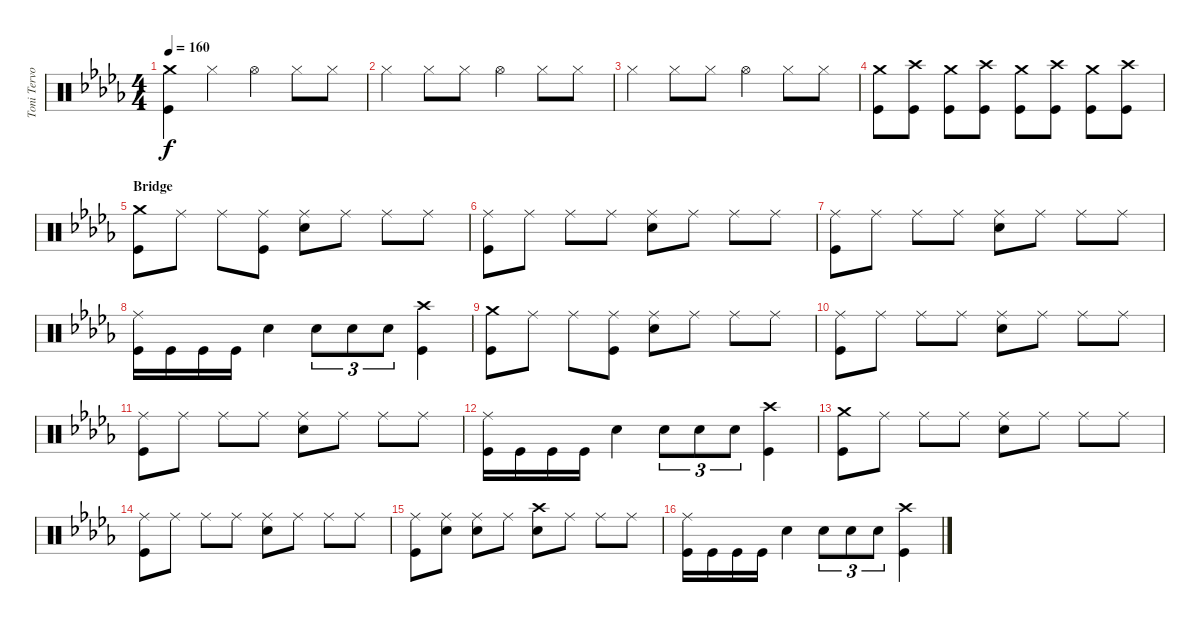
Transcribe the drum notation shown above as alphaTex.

\track ("Toni Tervo (drums)" "Toni Tervo") {instrument percussion}
\staff {score}
\articulation defaults
\ts (4 4)
\tempo 160
\clef neutral
\ks bbminor
("Crash medium (hit)" "Kick (hit)").4{dy f} "Hi-Hat (closed)".4 "Hi-Hat (open)".4 "Hi-Hat (closed)".8 "Hi-Hat (closed)".8 |
"Hi-Hat (closed)".4 "Hi-Hat (closed)".8 "Hi-Hat (closed)".8 "Hi-Hat (open)".4 "Hi-Hat (closed)".8 "Hi-Hat (closed)".8 |
"Hi-Hat (closed)".4 "Hi-Hat (closed)".8 "Hi-Hat (closed)".8 "Hi-Hat (open)".4 "Hi-Hat (closed)".8 "Hi-Hat (closed)".8 |
("Kick (hit)" "Crash medium (hit)").8 ("Kick (hit)" "Crash high (hit)").8 ("Kick (hit)" "Crash medium (hit)").8 ("Kick (hit)" "Crash high (hit)").8 ("Kick (hit)" "Crash medium (hit)").8 ("Kick (hit)" "Crash high (hit)").8 ("Kick (hit)" "Crash medium (hit)").8 ("Kick (hit)" "Crash high (hit)").8 |
\section ("" "Bridge")
("Crash medium (hit)" "Kick (hit)").8 "Ride (middle)".8 "Ride (middle)".8 ("Ride (middle)" "Kick (hit)").8 ("Ride (middle)" "Snare (hit) 2").8 "Ride (middle)".8 "Ride (middle)".8 "Ride (middle)".8 |
("Kick (hit)" "Ride (middle)").8 "Ride (middle)".8 "Ride (middle)".8 "Ride (middle)".8 ("Ride (middle)" "Snare (hit) 2").8 "Ride (middle)".8 "Ride (middle)".8 "Ride (middle)".8 |
("Kick (hit)" "Ride (middle)").8 "Ride (middle)".8 "Ride (middle)".8 "Ride (middle)".8 ("Ride (middle)" "Snare (hit) 2").8 "Ride (middle)".8 "Ride (middle)".8 "Ride (middle)".8 |
("Kick (hit)" "Ride (middle)").16 "Kick (hit)".16 "Kick (hit)".16 "Kick (hit)".16 "Snare (hit) 2".4 "Snare (hit) 2".8{tu (3 2)} "Snare (hit) 2".8{tu (3 2)} "Snare (hit) 2".8{tu (3 2)} ("Kick (hit)" "Crash high (hit)").4 |
("Crash medium (hit)" "Kick (hit)").8 "Ride (middle)".8 "Ride (middle)".8 ("Ride (middle)" "Kick (hit)").8 ("Ride (middle)" "Snare (hit) 2").8 "Ride (middle)".8 "Ride (middle)".8 "Ride (middle)".8 |
("Kick (hit)" "Ride (middle)").8 "Ride (middle)".8 "Ride (middle)".8 "Ride (middle)".8 ("Ride (middle)" "Snare (hit) 2").8 "Ride (middle)".8 "Ride (middle)".8 "Ride (middle)".8 |
("Kick (hit)" "Ride (middle)").8 "Ride (middle)".8 "Ride (middle)".8 "Ride (middle)".8 ("Ride (middle)" "Snare (hit) 2").8 "Ride (middle)".8 "Ride (middle)".8 "Ride (middle)".8 |
("Kick (hit)" "Ride (middle)").16 "Kick (hit)".16 "Kick (hit)".16 "Kick (hit)".16 "Snare (hit) 2".4 "Snare (hit) 2".8{tu (3 2)} "Snare (hit) 2".8{tu (3 2)} "Snare (hit) 2".8{tu (3 2)} ("Kick (hit)" "Crash high (hit)").4 |
("Crash medium (hit)" "Kick (hit)").8 "Ride (middle)".8 "Ride (middle)".8 "Ride (middle)".8 ("Ride (middle)" "Snare (hit) 2").8 "Ride (middle)".8 "Ride (middle)".8 "Ride (middle)".8 |
("Kick (hit)" "Ride (middle)").8 "Ride (middle)".8 "Ride (middle)".8 "Ride (middle)".8 ("Ride (middle)" "Snare (hit) 2").8 "Ride (middle)".8 "Ride (middle)".8 "Ride (middle)".8 |
("Kick (hit)" "Ride (middle)").8 ("Ride (middle)" "Snare (hit) 2").8 ("Ride (middle)" "Snare (hit) 2").8 "Ride (middle)".8 ("Snare (hit) 2" "Crash high (hit)").8 "Ride (middle)".8 "Ride (middle)".8 "Ride (middle)".8 |
("Kick (hit)" "Ride (middle)").16 "Kick (hit)".16 "Kick (hit)".16 "Kick (hit)".16 "Snare (hit) 2".4 "Snare (hit) 2".8{tu (3 2)} "Snare (hit) 2".8{tu (3 2)} "Snare (hit) 2".8{tu (3 2)} ("Kick (hit)" "Crash high (hit)").4
